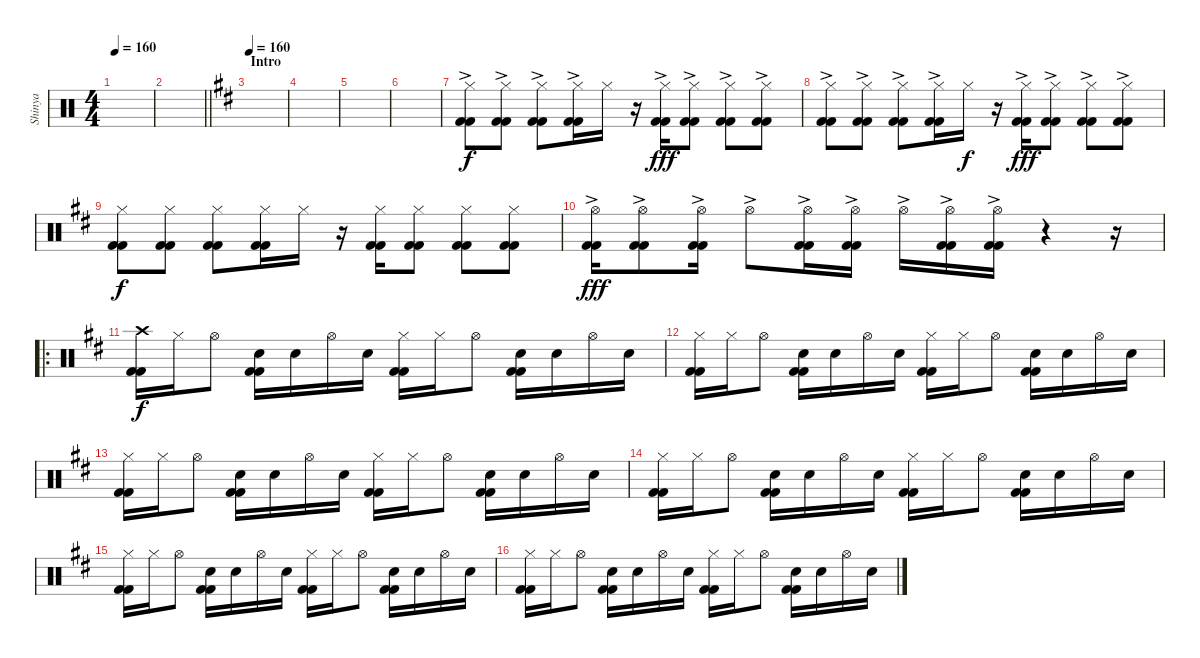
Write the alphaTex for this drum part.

\track ("Shinya " "Shinya ") {instrument percussion}
\staff {score}
\articulation defaults
\ts (4 4)
\tempo 160
\clef neutral
\ks c
|
\barLineRight lightlight
|
\section ("" "Intro")
\tempo 160
\ks d
|
|
|
|
("Hi-Hat (closed)" "Kick (hit) 2"{ac} "Kick (hit) 2").8{volume 14} ("Hi-Hat (closed)" "Kick (hit) 2"{ac} "Kick (hit) 2").8 ("Hi-Hat (closed)" "Kick (hit) 2"{ac} "Kick (hit) 2").8 ("Hi-Hat (closed)" "Kick (hit) 2"{ac} "Kick (hit) 2").16 "Hi-Hat (closed)".16{dy f} r.16 ("Hi-Hat (closed)" "Kick (hit) 2"{ac} "Kick (hit) 2").16{dy fff} ("Hi-Hat (closed)" "Kick (hit) 2"{ac} "Kick (hit) 2").8 ("Hi-Hat (closed)" "Kick (hit) 2"{ac} "Kick (hit) 2").8 ("Hi-Hat (closed)" "Kick (hit) 2"{ac} "Kick (hit) 2").8 |
("Hi-Hat (closed)" "Kick (hit) 2"{ac} "Kick (hit) 2").8 ("Hi-Hat (closed)" "Kick (hit) 2"{ac} "Kick (hit) 2").8 ("Hi-Hat (closed)" "Kick (hit) 2"{ac} "Kick (hit) 2").8 ("Hi-Hat (closed)" "Kick (hit) 2"{ac} "Kick (hit) 2").16 "Hi-Hat (closed)".16{dy f} r.16 ("Hi-Hat (closed)" "Kick (hit) 2"{ac} "Kick (hit) 2").16{dy fff} ("Hi-Hat (closed)" "Kick (hit) 2"{ac} "Kick (hit) 2").8 ("Hi-Hat (closed)" "Kick (hit) 2"{ac} "Kick (hit) 2").8 ("Hi-Hat (closed)" "Kick (hit) 2"{ac} "Kick (hit) 2").8 |
("Hi-Hat (closed)" "Kick (hit) 2" "Kick (hit) 2").8{dy f} ("Hi-Hat (closed)" "Kick (hit) 2" "Kick (hit) 2").8 ("Hi-Hat (closed)" "Kick (hit) 2" "Kick (hit) 2").8 ("Hi-Hat (closed)" "Kick (hit) 2" "Kick (hit) 2").16 "Hi-Hat (closed)".16 r.16 ("Hi-Hat (closed)" "Kick (hit) 2" "Kick (hit) 2").16 ("Hi-Hat (closed)" "Kick (hit) 2" "Kick (hit) 2").8 ("Hi-Hat (closed)" "Kick (hit) 2" "Kick (hit) 2").8 ("Hi-Hat (closed)" "Kick (hit) 2" "Kick (hit) 2").8 |
("Hi-Hat (open)"{ac} "Kick (hit) 2" "Kick (hit) 2").16{dy fff volume 12} ("Hi-Hat (open)"{ac} "Kick (hit) 2" "Kick (hit) 2").8 ("Hi-Hat (open)"{ac} "Kick (hit) 2" "Kick (hit) 2").16 "Hi-Hat (open)"{ac}.8 ("Hi-Hat (open)"{ac} "Kick (hit) 2" "Kick (hit) 2").16 ("Hi-Hat (open)"{ac} "Kick (hit) 2" "Kick (hit) 2").16 "Hi-Hat (open)"{ac}.16 ("Hi-Hat (open)"{ac} "Kick (hit) 2" "Kick (hit) 2").16 ("Hi-Hat (open)"{ac} "Kick (hit) 2" "Kick (hit) 2").16 r.4 r.16 |
\ro
("Crash high (hit)" "Kick (hit) 2" "Kick (hit) 2").16{dy f} "Hi-Hat (closed)".16 "Hi-Hat (open)".8 ("Snare (hit) 2" "Kick (hit) 2" "Kick (hit) 2").16 "Snare (hit) 2".16 "Hi-Hat (open)".16 "Snare (hit) 2".16 ("Hi-Hat (closed)" "Kick (hit) 2" "Kick (hit) 2").16 "Hi-Hat (closed)".16 "Hi-Hat (open)".8 ("Snare (hit) 2" "Kick (hit) 2" "Kick (hit) 2").16 "Snare (hit) 2".16 "Hi-Hat (open)".16 "Snare (hit) 2".16 |
("Hi-Hat (closed)" "Kick (hit) 2" "Kick (hit) 2").16 "Hi-Hat (closed)".16 "Hi-Hat (open)".8 ("Snare (hit) 2" "Kick (hit) 2" "Kick (hit) 2").16 "Snare (hit) 2".16 "Hi-Hat (open)".16 "Snare (hit) 2".16 ("Hi-Hat (closed)" "Kick (hit) 2" "Kick (hit) 2").16 "Hi-Hat (closed)".16 "Hi-Hat (open)".8 ("Snare (hit) 2" "Kick (hit) 2" "Kick (hit) 2").16 "Snare (hit) 2".16 "Hi-Hat (open)".16 "Snare (hit) 2".16 |
("Hi-Hat (closed)" "Kick (hit) 2" "Kick (hit) 2").16 "Hi-Hat (closed)".16 "Hi-Hat (open)".8 ("Snare (hit) 2" "Kick (hit) 2" "Kick (hit) 2").16 "Snare (hit) 2".16 "Hi-Hat (open)".16 "Snare (hit) 2".16 ("Hi-Hat (closed)" "Kick (hit) 2" "Kick (hit) 2").16 "Hi-Hat (closed)".16 "Hi-Hat (open)".8 ("Snare (hit) 2" "Kick (hit) 2" "Kick (hit) 2").16 "Snare (hit) 2".16 "Hi-Hat (open)".16 "Snare (hit) 2".16 |
("Hi-Hat (closed)" "Kick (hit) 2" "Kick (hit) 2").16 "Hi-Hat (closed)".16 "Hi-Hat (open)".8 ("Snare (hit) 2" "Kick (hit) 2" "Kick (hit) 2").16 "Snare (hit) 2".16 "Hi-Hat (open)".16 "Snare (hit) 2".16 ("Hi-Hat (closed)" "Kick (hit) 2" "Kick (hit) 2").16 "Hi-Hat (closed)".16 "Hi-Hat (open)".8 ("Snare (hit) 2" "Kick (hit) 2" "Kick (hit) 2").16 "Snare (hit) 2".16 "Hi-Hat (open)".16 "Snare (hit) 2".16 |
("Hi-Hat (closed)" "Kick (hit) 2" "Kick (hit) 2").16 "Hi-Hat (closed)".16 "Hi-Hat (open)".8 ("Snare (hit) 2" "Kick (hit) 2" "Kick (hit) 2").16 "Snare (hit) 2".16 "Hi-Hat (open)".16 "Snare (hit) 2".16 ("Hi-Hat (closed)" "Kick (hit) 2" "Kick (hit) 2").16 "Hi-Hat (closed)".16 "Hi-Hat (open)".8 ("Snare (hit) 2" "Kick (hit) 2" "Kick (hit) 2").16 "Snare (hit) 2".16 "Hi-Hat (open)".16 "Snare (hit) 2".16 |
("Hi-Hat (closed)" "Kick (hit) 2" "Kick (hit) 2").16 "Hi-Hat (closed)".16 "Hi-Hat (open)".8 ("Snare (hit) 2" "Kick (hit) 2" "Kick (hit) 2").16 "Snare (hit) 2".16 "Hi-Hat (open)".16 "Snare (hit) 2".16 ("Hi-Hat (closed)" "Kick (hit) 2" "Kick (hit) 2").16 "Hi-Hat (closed)".16 "Hi-Hat (open)".8 ("Snare (hit) 2" "Kick (hit) 2" "Kick (hit) 2").16 "Snare (hit) 2".16 "Hi-Hat (open)".16 "Snare (hit) 2".16
